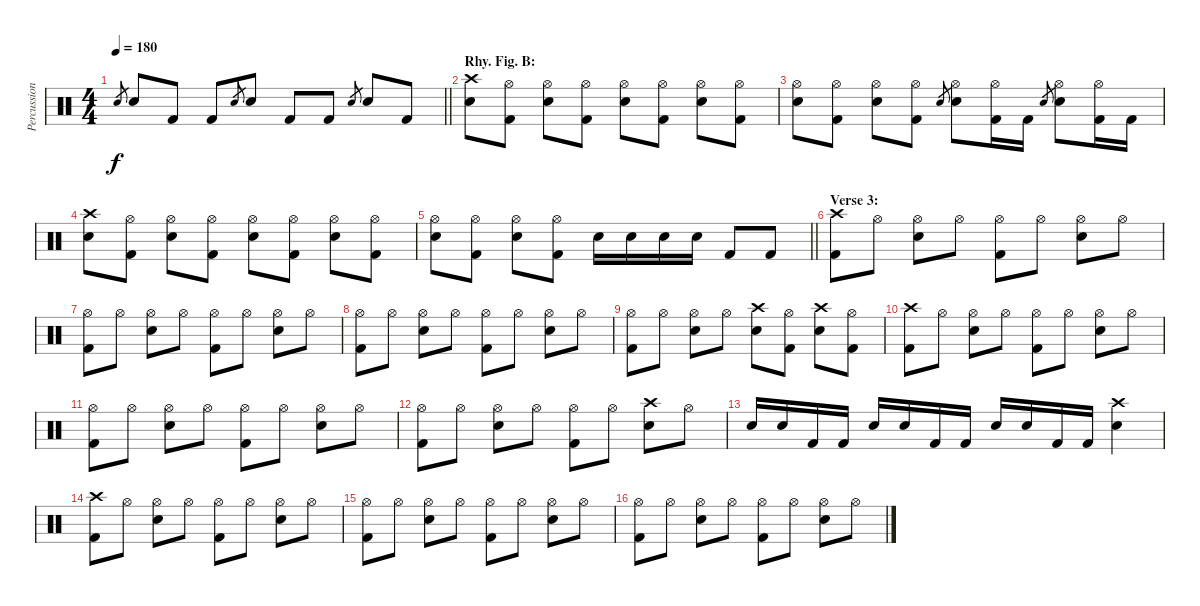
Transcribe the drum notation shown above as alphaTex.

\track ("Percussion" "Percussion") {instrument percussion}
\staff {score}
\articulation defaults
\ts (4 4)
\tempo 180
\clef neutral
\barLineRight lightlight
\ks c "Snare (hit) 2".8{gr dy f} "Snare (hit) 2".8 "Kick (hit) 2".8 "Kick (hit) 2".8 "Snare (hit) 2".8{gr} "Snare (hit) 2".8 "Kick (hit) 2".8 "Kick (hit) 2".8 "Snare (hit) 2".8{gr} "Snare (hit) 2".8 "Kick (hit) 2".8
|
\section ("" "Rhy. Fig. B:")
("Crash high (hit)" "Snare (hit) 2").8 ("Hi-Hat (open)" "Kick (hit) 2").8 ("Hi-Hat (open)" "Snare (hit) 2").8 ("Hi-Hat (open)" "Kick (hit) 2").8 ("Hi-Hat (open)" "Snare (hit) 2").8 ("Hi-Hat (open)" "Kick (hit) 2").8 ("Hi-Hat (open)" "Snare (hit) 2").8 ("Hi-Hat (open)" "Kick (hit) 2").8 |
("Hi-Hat (open)" "Snare (hit) 2").8 ("Hi-Hat (open)" "Kick (hit) 2").8 ("Hi-Hat (open)" "Snare (hit) 2").8 ("Hi-Hat (open)" "Kick (hit) 2").8 "Snare (hit) 2".8{gr} ("Hi-Hat (open)" "Snare (hit) 2").8 ("Hi-Hat (open)" "Kick (hit) 2").16 "Kick (hit) 2".16 "Snare (hit) 2".8{gr} ("Hi-Hat (open)" "Snare (hit) 2").8 ("Hi-Hat (open)" "Kick (hit) 2").16 "Kick (hit) 2".16 |
("Crash high (hit)" "Snare (hit) 2").8 ("Hi-Hat (open)" "Kick (hit) 2").8 ("Hi-Hat (open)" "Snare (hit) 2").8 ("Hi-Hat (open)" "Kick (hit) 2").8 ("Hi-Hat (open)" "Snare (hit) 2").8 ("Hi-Hat (open)" "Kick (hit) 2").8 ("Hi-Hat (open)" "Snare (hit) 2").8 ("Hi-Hat (open)" "Kick (hit) 2").8 |
\barLineRight lightlight
("Hi-Hat (open)" "Snare (hit) 2").8 ("Hi-Hat (open)" "Kick (hit) 2").8 ("Hi-Hat (open)" "Snare (hit) 2").8 ("Hi-Hat (open)" "Kick (hit) 2").8 "Snare (hit) 2".16 "Snare (hit) 2".16 "Snare (hit) 2".16 "Snare (hit) 2".16 "Kick (hit) 2".8 "Kick (hit) 2".8 |
\section ("" "Verse 3:")
("Crash high (hit)" "Kick (hit) 2").8 "Hi-Hat (open)".8 ("Hi-Hat (open)" "Snare (hit) 2").8 "Hi-Hat (open)".8 ("Hi-Hat (open)" "Kick (hit) 2").8 "Hi-Hat (open)".8 ("Hi-Hat (open)" "Snare (hit) 2").8 "Hi-Hat (open)".8 |
("Hi-Hat (open)" "Kick (hit) 2").8 "Hi-Hat (open)".8 ("Hi-Hat (open)" "Snare (hit) 2").8 "Hi-Hat (open)".8 ("Hi-Hat (open)" "Kick (hit) 2").8 "Hi-Hat (open)".8 ("Hi-Hat (open)" "Snare (hit) 2").8 "Hi-Hat (open)".8 |
("Hi-Hat (open)" "Kick (hit) 2").8 "Hi-Hat (open)".8 ("Hi-Hat (open)" "Snare (hit) 2").8 "Hi-Hat (open)".8 ("Hi-Hat (open)" "Kick (hit) 2").8 "Hi-Hat (open)".8 ("Hi-Hat (open)" "Snare (hit) 2").8 "Hi-Hat (open)".8 |
("Hi-Hat (open)" "Kick (hit) 2").8 "Hi-Hat (open)".8 ("Hi-Hat (open)" "Snare (hit) 2").8 "Hi-Hat (open)".8 ("Crash high (hit)" "Snare (hit) 2").8 ("Hi-Hat (open)" "Kick (hit) 2").8 ("Crash high (hit)" "Snare (hit) 2").8 ("Hi-Hat (open)" "Kick (hit) 2").8 |
("Crash high (hit)" "Kick (hit) 2").8 "Hi-Hat (open)".8 ("Hi-Hat (open)" "Snare (hit) 2").8 "Hi-Hat (open)".8 ("Hi-Hat (open)" "Kick (hit) 2").8 "Hi-Hat (open)".8 ("Hi-Hat (open)" "Snare (hit) 2").8 "Hi-Hat (open)".8 |
("Hi-Hat (open)" "Kick (hit) 2").8 "Hi-Hat (open)".8 ("Hi-Hat (open)" "Snare (hit) 2").8 "Hi-Hat (open)".8 ("Hi-Hat (open)" "Kick (hit) 2").8 "Hi-Hat (open)".8 ("Hi-Hat (open)" "Snare (hit) 2").8 "Hi-Hat (open)".8 |
("Hi-Hat (open)" "Kick (hit) 2").8 "Hi-Hat (open)".8 ("Hi-Hat (open)" "Snare (hit) 2").8 "Hi-Hat (open)".8 ("Hi-Hat (open)" "Kick (hit) 2").8 "Hi-Hat (open)".8 ("Crash high (hit)" "Snare (hit) 2").8 "Hi-Hat (open)".8 |
"Snare (hit) 2".16 "Snare (hit) 2".16 "Kick (hit) 2".16 "Kick (hit) 2".16 "Snare (hit) 2".16 "Snare (hit) 2".16 "Kick (hit) 2".16 "Kick (hit) 2".16 "Snare (hit) 2".16 "Snare (hit) 2".16 "Kick (hit) 2".16 "Kick (hit) 2".16 ("Crash high (hit)" "Snare (hit) 2").4 |
("Crash high (hit)" "Kick (hit) 2").8 "Hi-Hat (open)".8 ("Hi-Hat (open)" "Snare (hit) 2").8 "Hi-Hat (open)".8 ("Hi-Hat (open)" "Kick (hit) 2").8 "Hi-Hat (open)".8 ("Hi-Hat (open)" "Snare (hit) 2").8 "Hi-Hat (open)".8 |
("Hi-Hat (open)" "Kick (hit) 2").8 "Hi-Hat (open)".8 ("Hi-Hat (open)" "Snare (hit) 2").8 "Hi-Hat (open)".8 ("Hi-Hat (open)" "Kick (hit) 2").8 "Hi-Hat (open)".8 ("Hi-Hat (open)" "Snare (hit) 2").8 "Hi-Hat (open)".8 |
("Hi-Hat (open)" "Kick (hit) 2").8 "Hi-Hat (open)".8 ("Hi-Hat (open)" "Snare (hit) 2").8 "Hi-Hat (open)".8 ("Hi-Hat (open)" "Kick (hit) 2").8 "Hi-Hat (open)".8 ("Hi-Hat (open)" "Snare (hit) 2").8 "Hi-Hat (open)".8
